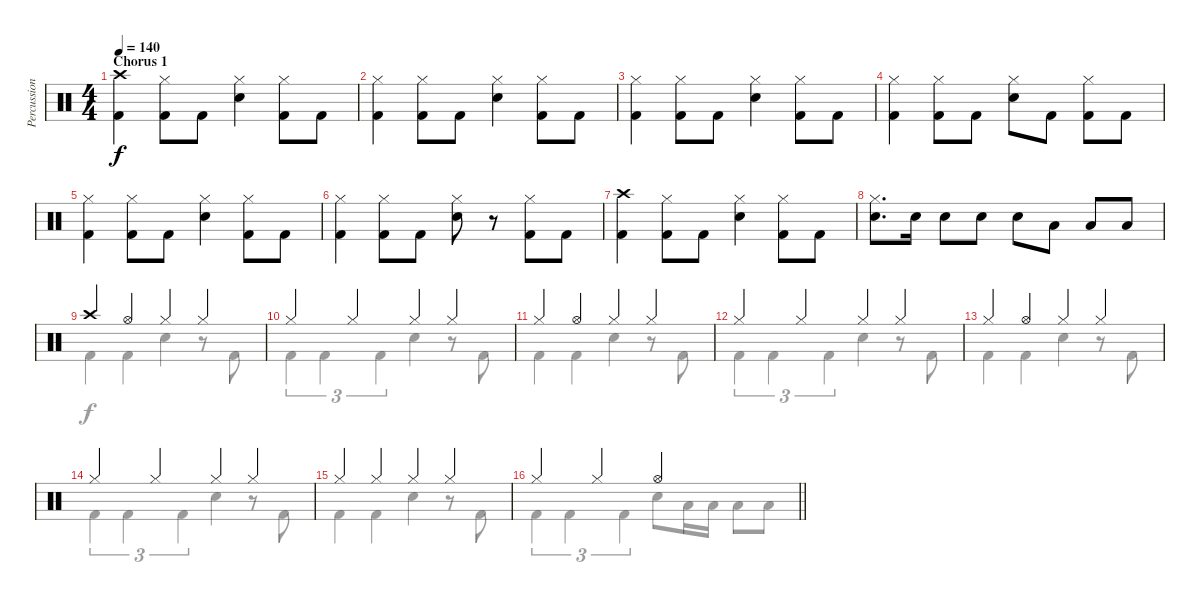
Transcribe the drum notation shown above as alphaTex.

\track ("Percussion (LP III)" "Percussion") {instrument percussion}
\staff {score}
\articulation defaults
\voice
\ts (4 4)
\section ("" "Chorus 1")
\tempo 140
\clef neutral
\ks c
("Crash high (hit)" "Kick (hit) 2").4{dy f} ("Hi-Hat (closed)" "Kick (hit) 2").8 "Kick (hit) 2".8 ("Hi-Hat (closed)" "Snare (hit) 2").4 ("Hi-Hat (closed)" "Kick (hit) 2").8 "Kick (hit) 2".8 |
("Hi-Hat (closed)" "Kick (hit) 2").4 ("Hi-Hat (closed)" "Kick (hit) 2").8 "Kick (hit) 2".8 ("Hi-Hat (closed)" "Snare (hit) 2").4 ("Hi-Hat (closed)" "Kick (hit) 2").8 "Kick (hit) 2".8 |
("Hi-Hat (closed)" "Kick (hit) 2").4 ("Hi-Hat (closed)" "Kick (hit) 2").8 "Kick (hit) 2".8 ("Hi-Hat (closed)" "Snare (hit) 2").4 ("Hi-Hat (closed)" "Kick (hit) 2").8 "Kick (hit) 2".8 |
("Hi-Hat (closed)" "Kick (hit) 2").4 ("Hi-Hat (closed)" "Kick (hit) 2").8 "Kick (hit) 2".8 ("Hi-Hat (closed)" "Snare (hit) 2").8 "Kick (hit) 2".8 ("Hi-Hat (closed)" "Kick (hit) 2").8 "Kick (hit) 2".8 |
("Hi-Hat (closed)" "Kick (hit) 2").4 ("Hi-Hat (closed)" "Kick (hit) 2").8 "Kick (hit) 2".8 ("Hi-Hat (closed)" "Snare (hit) 2").4 ("Hi-Hat (closed)" "Kick (hit) 2").8 "Kick (hit) 2".8 |
("Hi-Hat (closed)" "Kick (hit) 2").4 ("Hi-Hat (closed)" "Kick (hit) 2").8 "Kick (hit) 2".8 ("Hi-Hat (closed)" "Snare (hit) 2").8 r.8 ("Hi-Hat (closed)" "Kick (hit) 2").8 "Kick (hit) 2".8 |
("Crash high (hit)" "Kick (hit) 2").4 ("Hi-Hat (closed)" "Kick (hit) 2").8 "Kick (hit) 2".8 ("Hi-Hat (closed)" "Snare (hit) 2").4 ("Hi-Hat (closed)" "Kick (hit) 2").8 "Kick (hit) 2".8 |
("Hi-Hat (closed)" "Snare (hit) 2").8{d} "Snare (hit) 2".16 "Snare (hit) 2".8 "Snare (hit) 2".8 "Snare (hit) 2".8 "Low Tom (hit)".8 "Low Tom (hit)".8 "Low Tom (hit)".8 |
"Crash high (hit)".4 "Hi-Hat (open)".4 "Hi-Hat (closed)".4 "Hi-Hat (closed)".4 |
"Hi-Hat (closed)".4 "Hi-Hat (closed)".4 "Hi-Hat (closed)".4 "Hi-Hat (closed)".4 |
"Hi-Hat (closed)".4 "Hi-Hat (open)".4 "Hi-Hat (closed)".4 "Hi-Hat (closed)".4 |
"Hi-Hat (closed)".4 "Hi-Hat (closed)".4 "Hi-Hat (closed)".4 "Hi-Hat (closed)".4 |
"Hi-Hat (closed)".4 "Hi-Hat (open)".4 "Hi-Hat (closed)".4 "Hi-Hat (closed)".4 |
"Hi-Hat (closed)".4 "Hi-Hat (closed)".4 "Hi-Hat (closed)".4 "Hi-Hat (closed)".4 |
"Hi-Hat (closed)".4 "Hi-Hat (closed)".4 "Hi-Hat (closed)".4 "Hi-Hat (closed)".4 |
\barLineRight lightlight "Hi-Hat (closed)".4 "Hi-Hat (closed)".4 "Hi-Hat (open)".2
\voice
\clef neutral
\ottava regular
\simile none
\ks c
|
|
|
|
|
|
|
|
"Kick (hit) 2".4 "Kick (hit) 2".4 "Snare (hit) 2".4 r.8 "Kick (hit) 2".8 |
"Kick (hit) 2".4{tu (3 2)} "Kick (hit) 2".4{tu (3 2)} "Kick (hit) 2".4{tu (3 2)} "Snare (hit) 2".4 r.8 "Kick (hit) 2".8 |
"Kick (hit) 2".4 "Kick (hit) 2".4 "Snare (hit) 2".4 r.8 "Kick (hit) 2".8 |
"Kick (hit) 2".4{tu (3 2)} "Kick (hit) 2".4{tu (3 2)} "Kick (hit) 2".4{tu (3 2)} "Snare (hit) 2".4 r.8 "Kick (hit) 2".8 |
"Kick (hit) 2".4 "Kick (hit) 2".4 "Snare (hit) 2".4 r.8 "Kick (hit) 2".8 |
"Kick (hit) 2".4{tu (3 2)} "Kick (hit) 2".4{tu (3 2)} "Kick (hit) 2".4{tu (3 2)} "Snare (hit) 2".4 r.8 "Kick (hit) 2".8 |
"Kick (hit) 2".4 "Kick (hit) 2".4 "Snare (hit) 2".4 r.8 "Kick (hit) 2".8 |
\barLineRight lightlight "Kick (hit) 2".4{tu (3 2)} "Kick (hit) 2".4{tu (3 2)} "Kick (hit) 2".4{tu (3 2)} "Snare (hit) 2".8 "Low Tom (hit)".16 "Low Tom (hit)".16 "Low Tom (hit)".8 "Low Tom (hit)".8
